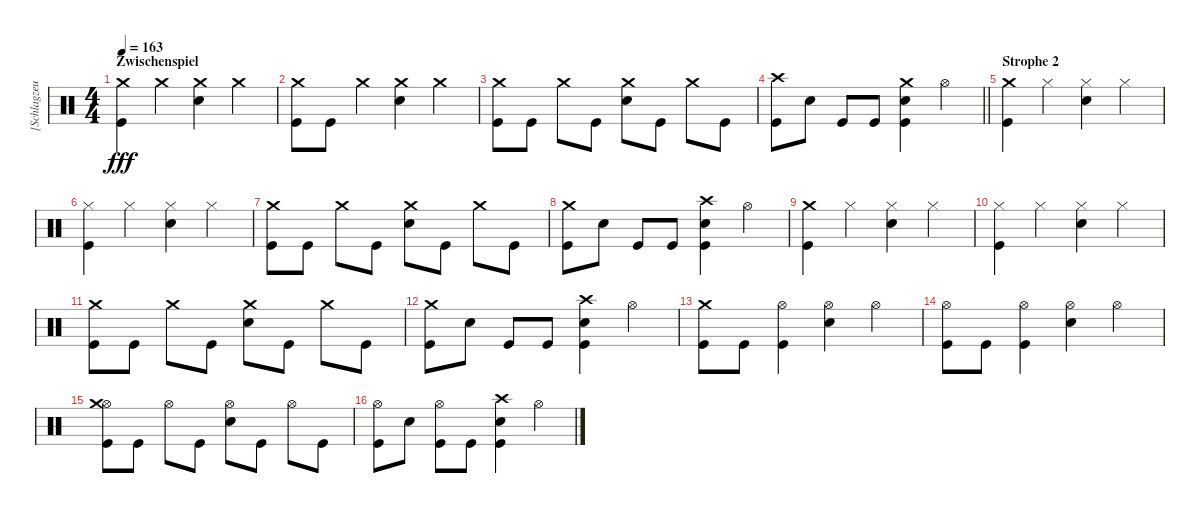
\track ("[Schlagzeug]" "[Schlagzeu") {instrument percussion}
\staff {score}
\articulation defaults
\ts (4 4)
\section ("" "Zwischenspiel")
\tempo 163
\clef neutral
\ks c
("Crash medium (hit)" "Kick (hit)").4{dy fff} "Crash medium (hit)".4 ("Crash medium (hit)" "Electric Snare (hit)").4 "Crash medium (hit)".4 |
("Crash medium (hit)" "Kick (hit)").8 "Kick (hit)".8 "Crash medium (hit)".4 ("Crash medium (hit)" "Electric Snare (hit)").4 "Crash medium (hit)".4 |
("Crash medium (hit)" "Kick (hit)").8 "Kick (hit)".8 "Crash medium (hit)".8 "Kick (hit)".8 ("Crash medium (hit)" "Electric Snare (hit)").8 "Kick (hit)".8 "Crash medium (hit)".8 "Kick (hit)".8 |
\barLineRight lightlight
("Kick (hit)" "Crash high (hit)").8 "Electric Snare (hit)".8 "Kick (hit)".8 "Kick (hit)".8 ("Kick (hit)" "Electric Snare (hit)" "Crash medium (hit)").4 "Hi-Hat (open)".4 |
\section ("" "Strophe 2")
("Crash medium (hit)" "Kick (hit)").4 "Hi-Hat (closed)".4 ("Hi-Hat (closed)" "Electric Snare (hit)").4 "Hi-Hat (closed)".4 |
("Hi-Hat (closed)" "Kick (hit)").4 "Hi-Hat (closed)".4 ("Hi-Hat (closed)" "Electric Snare (hit)").4 "Hi-Hat (closed)".4 |
("Crash medium (hit)" "Kick (hit)").8 "Kick (hit)".8 "Crash medium (hit)".8 "Kick (hit)".8 ("Crash medium (hit)" "Electric Snare (hit)").8 "Kick (hit)".8 "Crash medium (hit)".8 "Kick (hit)".8 |
("Crash medium (hit)" "Kick (hit)").8 "Electric Snare (hit)".8 "Kick (hit)".8 "Kick (hit)".8 ("Kick (hit)" "Electric Snare (hit)" "Crash high (hit)").4 "Hi-Hat (open)".4 |
("Crash medium (hit)" "Kick (hit)").4 "Hi-Hat (closed)".4 ("Hi-Hat (closed)" "Electric Snare (hit)").4 "Hi-Hat (closed)".4 |
("Hi-Hat (closed)" "Kick (hit)").4 "Hi-Hat (closed)".4 ("Hi-Hat (closed)" "Electric Snare (hit)").4 "Hi-Hat (closed)".4 |
("Crash medium (hit)" "Kick (hit)").8 "Kick (hit)".8 "Crash medium (hit)".8 "Kick (hit)".8 ("Crash medium (hit)" "Electric Snare (hit)").8 "Kick (hit)".8 "Crash medium (hit)".8 "Kick (hit)".8 |
("Crash medium (hit)" "Kick (hit)").8 "Electric Snare (hit)".8 "Kick (hit)".8 "Kick (hit)".8 ("Kick (hit)" "Electric Snare (hit)" "Crash high (hit)").4 "Hi-Hat (open)".4 |
("Crash medium (hit)" "Kick (hit)").8 "Kick (hit)".8 ("Hi-Hat (open)" "Kick (hit)").4 ("Hi-Hat (open)" "Electric Snare (hit)").4 "Hi-Hat (open)".4 |
("Hi-Hat (open)" "Kick (hit)").8 "Kick (hit)".8 ("Hi-Hat (open)" "Kick (hit)").4 ("Hi-Hat (open)" "Electric Snare (hit)").4 "Hi-Hat (open)".4 |
("Hi-Hat (open)" "Crash medium (hit)" "Kick (hit)").8 "Kick (hit)".8 "Hi-Hat (open)".8 "Kick (hit)".8 ("Hi-Hat (open)" "Electric Snare (hit)").8 "Kick (hit)".8 "Hi-Hat (open)".8 "Kick (hit)".8 |
("Hi-Hat (open)" "Kick (hit)").8 "Electric Snare (hit)".8 ("Hi-Hat (open)" "Kick (hit)").8 "Kick (hit)".8 ("Kick (hit)" "Electric Snare (hit)" "Crash high (hit)").4 "Hi-Hat (open)".4
